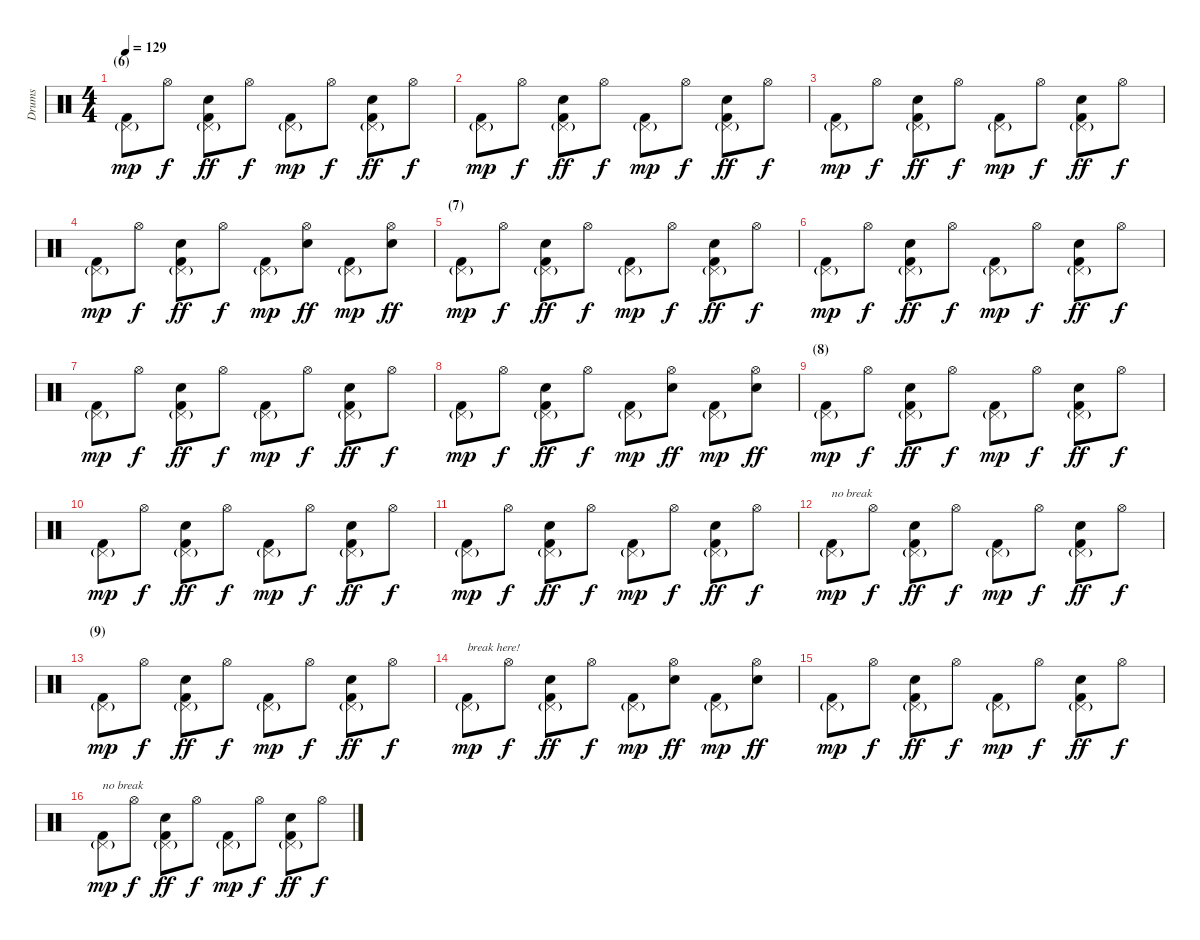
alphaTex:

\track ("Drums" "Drums") {instrument percussion}
\staff {score}
\articulation defaults
\ts (4 4)
\section ("" "(6)")
\tempo 129
\clef neutral
\ks c
("Pedal Hi-Hat (hit)"{g} "Kick (hit) 2").8{dy mp} "Hi-Hat (open)".8{dy f} ("Pedal Hi-Hat (hit)"{g} "Electric Snare (hit)" "Kick (hit) 2").8{dy ff} "Hi-Hat (open)".8{dy f} ("Pedal Hi-Hat (hit)"{g} "Kick (hit) 2").8{dy mp} "Hi-Hat (open)".8{dy f} ("Pedal Hi-Hat (hit)"{g} "Electric Snare (hit)" "Kick (hit) 2").8{dy ff} "Hi-Hat (open)".8{dy f} |
("Pedal Hi-Hat (hit)"{g} "Kick (hit) 2").8{dy mp} "Hi-Hat (open)".8{dy f} ("Pedal Hi-Hat (hit)"{g} "Electric Snare (hit)" "Kick (hit) 2").8{dy ff} "Hi-Hat (open)".8{dy f} ("Pedal Hi-Hat (hit)"{g} "Kick (hit) 2").8{dy mp} "Hi-Hat (open)".8{dy f} ("Pedal Hi-Hat (hit)"{g} "Electric Snare (hit)" "Kick (hit) 2").8{dy ff} "Hi-Hat (open)".8{dy f} |
("Pedal Hi-Hat (hit)"{g} "Kick (hit) 2").8{dy mp} "Hi-Hat (open)".8{dy f} ("Pedal Hi-Hat (hit)"{g} "Electric Snare (hit)" "Kick (hit) 2").8{dy ff} "Hi-Hat (open)".8{dy f} ("Pedal Hi-Hat (hit)"{g} "Kick (hit) 2").8{dy mp} "Hi-Hat (open)".8{dy f} ("Pedal Hi-Hat (hit)"{g} "Electric Snare (hit)" "Kick (hit) 2").8{dy ff} "Hi-Hat (open)".8{dy f} |
("Pedal Hi-Hat (hit)"{g} "Kick (hit) 2").8{dy mp} "Hi-Hat (open)".8{dy f} ("Pedal Hi-Hat (hit)"{g} "Electric Snare (hit)" "Kick (hit) 2").8{dy ff} "Hi-Hat (open)".8{dy f} ("Pedal Hi-Hat (hit)"{g} "Kick (hit) 2").8{dy mp} ("Hi-Hat (open)" "Electric Snare (hit)").8{dy ff} ("Pedal Hi-Hat (hit)"{g} "Kick (hit) 2").8{dy mp} ("Hi-Hat (open)" "Electric Snare (hit)").8{dy ff} |
\section ("" "(7)")
("Pedal Hi-Hat (hit)"{g} "Kick (hit) 2").8{dy mp} "Hi-Hat (open)".8{dy f} ("Pedal Hi-Hat (hit)"{g} "Electric Snare (hit)" "Kick (hit) 2").8{dy ff} "Hi-Hat (open)".8{dy f} ("Pedal Hi-Hat (hit)"{g} "Kick (hit) 2").8{dy mp} "Hi-Hat (open)".8{dy f} ("Pedal Hi-Hat (hit)"{g} "Electric Snare (hit)" "Kick (hit) 2").8{dy ff} "Hi-Hat (open)".8{dy f} |
("Pedal Hi-Hat (hit)"{g} "Kick (hit) 2").8{dy mp} "Hi-Hat (open)".8{dy f} ("Pedal Hi-Hat (hit)"{g} "Electric Snare (hit)" "Kick (hit) 2").8{dy ff} "Hi-Hat (open)".8{dy f} ("Pedal Hi-Hat (hit)"{g} "Kick (hit) 2").8{dy mp} "Hi-Hat (open)".8{dy f} ("Pedal Hi-Hat (hit)"{g} "Electric Snare (hit)" "Kick (hit) 2").8{dy ff} "Hi-Hat (open)".8{dy f} |
("Pedal Hi-Hat (hit)"{g} "Kick (hit) 2").8{dy mp} "Hi-Hat (open)".8{dy f} ("Pedal Hi-Hat (hit)"{g} "Electric Snare (hit)" "Kick (hit) 2").8{dy ff} "Hi-Hat (open)".8{dy f} ("Pedal Hi-Hat (hit)"{g} "Kick (hit) 2").8{dy mp} "Hi-Hat (open)".8{dy f} ("Pedal Hi-Hat (hit)"{g} "Electric Snare (hit)" "Kick (hit) 2").8{dy ff} "Hi-Hat (open)".8{dy f} |
("Pedal Hi-Hat (hit)"{g} "Kick (hit) 2").8{dy mp} "Hi-Hat (open)".8{dy f} ("Pedal Hi-Hat (hit)"{g} "Electric Snare (hit)" "Kick (hit) 2").8{dy ff} "Hi-Hat (open)".8{dy f} ("Pedal Hi-Hat (hit)"{g} "Kick (hit) 2").8{dy mp} ("Hi-Hat (open)" "Electric Snare (hit)").8{dy ff} ("Pedal Hi-Hat (hit)"{g} "Kick (hit) 2").8{dy mp} ("Hi-Hat (open)" "Electric Snare (hit)").8{dy ff} |
\section ("" "(8)")
("Pedal Hi-Hat (hit)"{g} "Kick (hit) 2").8{dy mp} "Hi-Hat (open)".8{dy f} ("Pedal Hi-Hat (hit)"{g} "Electric Snare (hit)" "Kick (hit) 2").8{dy ff} "Hi-Hat (open)".8{dy f} ("Pedal Hi-Hat (hit)"{g} "Kick (hit) 2").8{dy mp} "Hi-Hat (open)".8{dy f} ("Pedal Hi-Hat (hit)"{g} "Electric Snare (hit)" "Kick (hit) 2").8{dy ff} "Hi-Hat (open)".8{dy f} |
("Pedal Hi-Hat (hit)"{g} "Kick (hit) 2").8{dy mp} "Hi-Hat (open)".8{dy f} ("Pedal Hi-Hat (hit)"{g} "Electric Snare (hit)" "Kick (hit) 2").8{dy ff} "Hi-Hat (open)".8{dy f} ("Pedal Hi-Hat (hit)"{g} "Kick (hit) 2").8{dy mp} "Hi-Hat (open)".8{dy f} ("Pedal Hi-Hat (hit)"{g} "Electric Snare (hit)" "Kick (hit) 2").8{dy ff} "Hi-Hat (open)".8{dy f} |
("Pedal Hi-Hat (hit)"{g} "Kick (hit) 2").8{dy mp} "Hi-Hat (open)".8{dy f} ("Pedal Hi-Hat (hit)"{g} "Electric Snare (hit)" "Kick (hit) 2").8{dy ff} "Hi-Hat (open)".8{dy f} ("Pedal Hi-Hat (hit)"{g} "Kick (hit) 2").8{dy mp} "Hi-Hat (open)".8{dy f} ("Pedal Hi-Hat (hit)"{g} "Electric Snare (hit)" "Kick (hit) 2").8{dy ff} "Hi-Hat (open)".8{dy f} |
("Pedal Hi-Hat (hit)"{g} "Kick (hit) 2").8{txt "no break" dy mp} "Hi-Hat (open)".8{dy f} ("Pedal Hi-Hat (hit)"{g} "Electric Snare (hit)" "Kick (hit) 2").8{dy ff} "Hi-Hat (open)".8{dy f} ("Pedal Hi-Hat (hit)"{g} "Kick (hit) 2").8{dy mp} "Hi-Hat (open)".8{dy f} ("Pedal Hi-Hat (hit)"{g} "Electric Snare (hit)" "Kick (hit) 2").8{dy ff} "Hi-Hat (open)".8{dy f} |
\section ("" "(9)")
("Pedal Hi-Hat (hit)"{g} "Kick (hit) 2").8{dy mp} "Hi-Hat (open)".8{dy f} ("Pedal Hi-Hat (hit)"{g} "Electric Snare (hit)" "Kick (hit) 2").8{dy ff} "Hi-Hat (open)".8{dy f} ("Pedal Hi-Hat (hit)"{g} "Kick (hit) 2").8{dy mp} "Hi-Hat (open)".8{dy f} ("Pedal Hi-Hat (hit)"{g} "Electric Snare (hit)" "Kick (hit) 2").8{dy ff} "Hi-Hat (open)".8{dy f} |
("Pedal Hi-Hat (hit)"{g} "Kick (hit) 2").8{txt "break here!" dy mp} "Hi-Hat (open)".8{dy f} ("Pedal Hi-Hat (hit)"{g} "Electric Snare (hit)" "Kick (hit) 2").8{dy ff} "Hi-Hat (open)".8{dy f} ("Pedal Hi-Hat (hit)"{g} "Kick (hit) 2").8{dy mp} ("Hi-Hat (open)" "Electric Snare (hit)").8{dy ff} ("Pedal Hi-Hat (hit)"{g} "Kick (hit) 2").8{dy mp} ("Hi-Hat (open)" "Electric Snare (hit)").8{dy ff} |
("Pedal Hi-Hat (hit)"{g} "Kick (hit) 2").8{dy mp} "Hi-Hat (open)".8{dy f} ("Pedal Hi-Hat (hit)"{g} "Electric Snare (hit)" "Kick (hit) 2").8{dy ff} "Hi-Hat (open)".8{dy f} ("Pedal Hi-Hat (hit)"{g} "Kick (hit) 2").8{dy mp} "Hi-Hat (open)".8{dy f} ("Pedal Hi-Hat (hit)"{g} "Electric Snare (hit)" "Kick (hit) 2").8{dy ff} "Hi-Hat (open)".8{dy f} |
("Pedal Hi-Hat (hit)"{g} "Kick (hit) 2").8{txt "no break" dy mp} "Hi-Hat (open)".8{dy f} ("Pedal Hi-Hat (hit)"{g} "Electric Snare (hit)" "Kick (hit) 2").8{dy ff} "Hi-Hat (open)".8{dy f} ("Pedal Hi-Hat (hit)"{g} "Kick (hit) 2").8{dy mp} "Hi-Hat (open)".8{dy f} ("Pedal Hi-Hat (hit)"{g} "Electric Snare (hit)" "Kick (hit) 2").8{dy ff} "Hi-Hat (open)".8{dy f}
